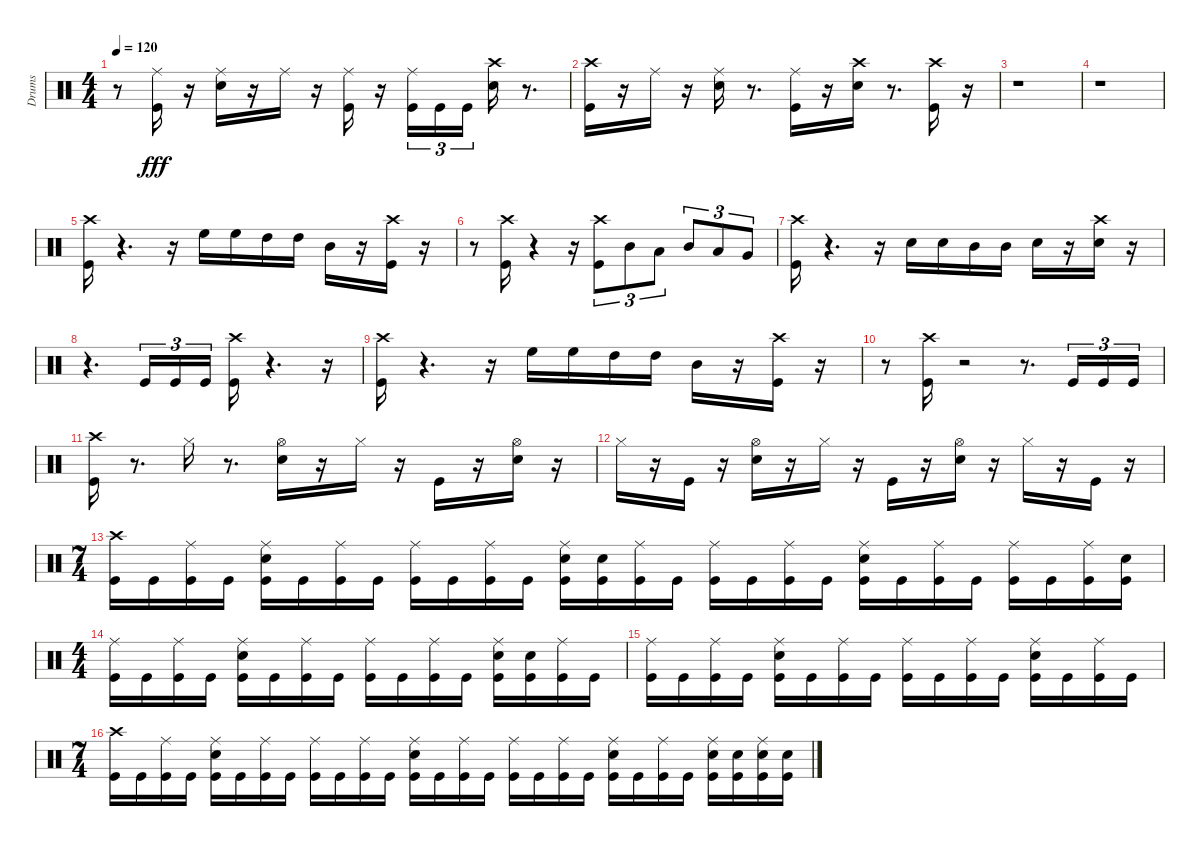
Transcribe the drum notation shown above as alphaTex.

\track ("Drums" "Drums") {instrument percussion}
\staff {score}
\articulation defaults
\ts (4 4)
\tempo 120
\clef neutral
\ks c
r.8{dy fff} ("Ride (middle)" "Kick (hit)").16 r.16 ("Ride (middle)" "Snare (hit) 2").16 r.16 "Ride (middle)".16 r.16 ("Ride (middle)" "Kick (hit)").16 r.16 ("Ride (middle)" "Kick (hit)").16{tu (3 2)} "Kick (hit)".16{tu (3 2)} "Kick (hit)".16{tu (3 2)} ("Crash high (hit)" "Snare (hit) 2").16 r.8{d} |
("Crash high (hit)" "Kick (hit)").16 r.16 "Ride (middle)".16 r.16 ("Ride (middle)" "Snare (hit) 2").16 r.8{d} ("Ride (middle)" "Kick (hit)").16 r.16 ("Crash high (hit)" "Snare (hit) 2").16 r.8{d} ("Crash high (hit)" "Kick (hit)").16 r.16 |
r.1 |
r.1 |
("Crash high (hit)" "Kick (hit)").16 r.4{d} r.16 "High Floor Tom (hit)".16 "High Floor Tom (hit)".16 "High Tom (hit)".16 "High Tom (hit)".16 "Mid Tom (hit)".16 r.16 ("Crash high (hit)" "Kick (hit)").16 r.16 |
r.8 ("Crash high (hit)" "Kick (hit)").16 r.4 r.16 ("Crash high (hit)" "Kick (hit)").8{tu (3 2)} "Mid Tom (hit)".8{tu (3 2)} "Low Tom (hit)".8{tu (3 2)} "Mid Tom (hit)".8{tu (3 2)} "Low Tom (hit)".8{tu (3 2)} "Very Low Tom (hit)".8{tu (3 2)} |
("Crash high (hit)" "Kick (hit)").16 r.4{d} r.16 "Snare (hit) 2".16 "Snare (hit) 2".16 "Mid Tom (hit)".16 "Mid Tom (hit)".16 "Snare (hit) 2".16 r.16 ("Snare (hit) 2" "Crash high (hit)").16 r.16 |
r.4{d} "Kick (hit)".16{tu (3 2)} "Kick (hit)".16{tu (3 2)} "Kick (hit)".16{tu (3 2)} ("Crash high (hit)" "Kick (hit)").16 r.4{d} r.16 |
("Kick (hit)" "Crash high (hit)").16 r.4{d} r.16 "High Floor Tom (hit)".16 "High Floor Tom (hit)".16 "High Tom (hit)".16 "High Tom (hit)".16 "Mid Tom (hit)".16 r.16 ("Kick (hit)" "Crash high (hit)").16 r.16 |
r.8 ("Kick (hit)" "Crash high (hit)").16 r.2 r.8{d} "Kick (hit)".16{tu (3 2)} "Kick (hit)".16{tu (3 2)} "Kick (hit)".16{tu (3 2)} |
("Kick (hit)" "Crash high (hit)").16 r.8{d} "Hi-Hat (closed)".16 r.8{d} ("Hi-Hat (open)" "Snare (hit) 2").16 r.16 "Hi-Hat (closed)".16 r.16 "Kick (hit)".16 r.16 ("Snare (hit) 2" "Hi-Hat (open)").16 r.16 |
"Hi-Hat (closed)".16 r.16 "Kick (hit)".16 r.16 ("Snare (hit) 2" "Hi-Hat (open)").16 r.16 "Hi-Hat (closed)".16 r.16 "Kick (hit)".16 r.16 ("Hi-Hat (open)" "Snare (hit) 2").16 r.16 "Hi-Hat (closed)".16 r.16 "Kick (hit)".16 r.16 |
\ts (7 4)
("Crash high (hit)" "Kick (hit)").16 "Kick (hit)".16 ("Ride (middle)" "Kick (hit)").16 "Kick (hit)".16 ("Snare (hit) 2" "Ride (middle)" "Kick (hit)").16 "Kick (hit)".16 ("Ride (middle)" "Kick (hit)").16 "Kick (hit)".16 ("Ride (middle)" "Kick (hit)").16 "Kick (hit)".16 ("Ride (middle)" "Kick (hit)").16 "Kick (hit)".16 ("Snare (hit) 2" "Ride (middle)" "Kick (hit)").16 ("Snare (hit) 2" "Kick (hit)").16 ("Ride (middle)" "Kick (hit)").16 "Kick (hit)".16 ("Ride (middle)" "Kick (hit)").16 "Kick (hit)".16 ("Ride (middle)" "Kick (hit)").16 "Kick (hit)".16 ("Snare (hit) 2" "Ride (middle)" "Kick (hit)").16 "Kick (hit)".16 ("Ride (middle)" "Kick (hit)").16 "Kick (hit)".16 ("Ride (middle)" "Kick (hit)").16 "Kick (hit)".16 ("Ride (middle)" "Kick (hit)").16 ("Snare (hit) 2" "Kick (hit)").16 |
\ts (4 4)
("Ride (middle)" "Kick (hit)").16 "Kick (hit)".16 ("Ride (middle)" "Kick (hit)").16 "Kick (hit)".16 ("Snare (hit) 2" "Ride (middle)" "Kick (hit)").16 "Kick (hit)".16 ("Ride (middle)" "Kick (hit)").16 "Kick (hit)".16 ("Ride (middle)" "Kick (hit)").16 "Kick (hit)".16 ("Ride (middle)" "Kick (hit)").16 "Kick (hit)".16 ("Snare (hit) 2" "Ride (middle)" "Kick (hit)").16 ("Snare (hit) 2" "Kick (hit)").16 ("Ride (middle)" "Kick (hit)").16 "Kick (hit)".16 |
("Ride (middle)" "Kick (hit)").16 "Kick (hit)".16 ("Ride (middle)" "Kick (hit)").16 "Kick (hit)".16 ("Snare (hit) 2" "Ride (middle)" "Kick (hit)").16 "Kick (hit)".16 ("Ride (middle)" "Kick (hit)").16 "Kick (hit)".16 ("Ride (middle)" "Kick (hit)").16 "Kick (hit)".16 ("Ride (middle)" "Kick (hit)").16 "Kick (hit)".16 ("Snare (hit) 2" "Ride (middle)" "Kick (hit)").16 "Kick (hit)".16 ("Ride (middle)" "Kick (hit)").16 "Kick (hit)".16 |
\ts (7 4)
("Kick (hit)" "Crash high (hit)").16 "Kick (hit)".16 ("Kick (hit)" "Ride (middle)").16 "Kick (hit)".16 ("Kick (hit)" "Ride (middle)" "Snare (hit) 2").16 "Kick (hit)".16 ("Kick (hit)" "Ride (middle)").16 "Kick (hit)".16 ("Kick (hit)" "Ride (middle)").16 "Kick (hit)".16 ("Kick (hit)" "Ride (middle)").16 "Kick (hit)".16 ("Kick (hit)" "Ride (middle)" "Snare (hit) 2").16 "Kick (hit)".16 ("Kick (hit)" "Ride (middle)").16 "Kick (hit)".16 ("Kick (hit)" "Ride (middle)").16 "Kick (hit)".16 ("Kick (hit)" "Ride (middle)").16 "Kick (hit)".16 ("Kick (hit)" "Ride (middle)" "Snare (hit) 2").16 "Kick (hit)".16 ("Kick (hit)" "Ride (middle)").16 "Kick (hit)".16 ("Snare (hit) 2" "Kick (hit)" "Ride (middle)").16 ("Snare (hit) 2" "Kick (hit)").16 ("Snare (hit) 2" "Kick (hit)" "Ride (middle)").16 ("Kick (hit)" "Snare (hit) 2").16
